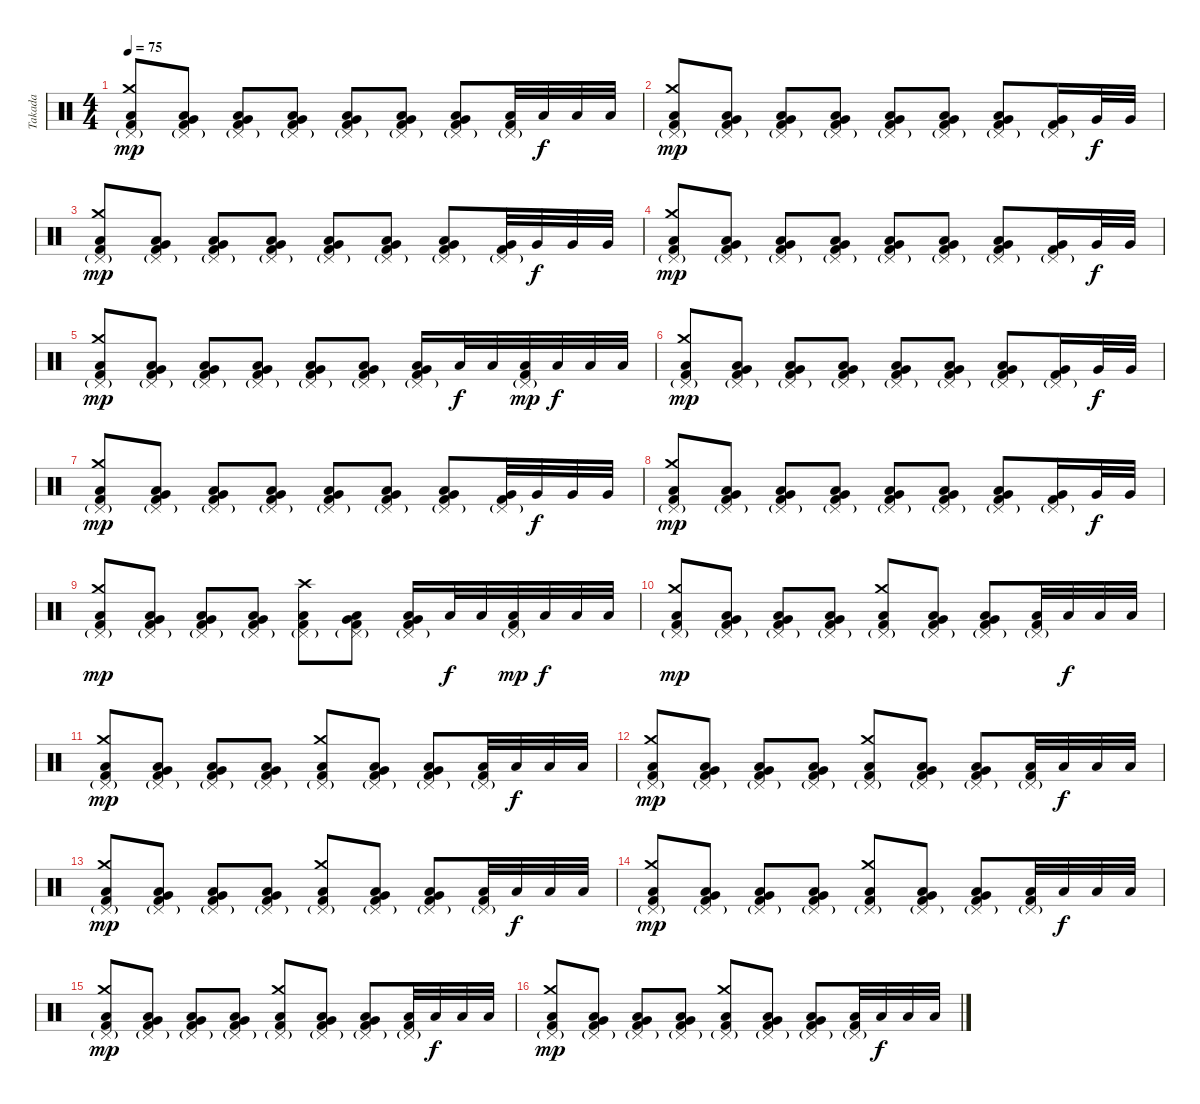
\track ("Takada" "Takada") {instrument percussion}
\staff {score}
\articulation defaults
\ts (4 4)
\tempo 75
\clef neutral
\ks c
("Pedal Hi-Hat (hit)"{g} "Crash medium (hit)" "Low Floor Tom (hit)" "Kick (hit) 2").8{dy mp} ("Pedal Hi-Hat (hit)"{g} "Very Low Tom (hit)" "Low Floor Tom (hit)" "Kick (hit) 2").8 ("Pedal Hi-Hat (hit)"{g} "Very Low Tom (hit)" "Low Floor Tom (hit)" "Kick (hit) 2").8 ("Pedal Hi-Hat (hit)"{g} "Very Low Tom (hit)" "Low Floor Tom (hit)" "Kick (hit) 2").8 ("Pedal Hi-Hat (hit)"{g} "Very Low Tom (hit)" "Low Floor Tom (hit)" "Kick (hit) 2").8 ("Pedal Hi-Hat (hit)"{g} "Very Low Tom (hit)" "Low Floor Tom (hit)" "Kick (hit) 2").8 ("Pedal Hi-Hat (hit)"{g} "Very Low Tom (hit)" "Low Floor Tom (hit)" "Kick (hit) 2").8 ("Pedal Hi-Hat (hit)"{g} "Low Floor Tom (hit)" "Kick (hit) 2").32 "Low Floor Tom (hit)".32{dy f} "Low Floor Tom (hit)".32 "Low Floor Tom (hit)".32 |
("Pedal Hi-Hat (hit)"{g} "Crash medium (hit)" "Low Floor Tom (hit)" "Kick (hit) 2").8{dy mp} ("Pedal Hi-Hat (hit)"{g} "Very Low Tom (hit)" "Low Floor Tom (hit)" "Kick (hit) 2").8 ("Pedal Hi-Hat (hit)"{g} "Very Low Tom (hit)" "Low Floor Tom (hit)" "Kick (hit) 2").8 ("Pedal Hi-Hat (hit)"{g} "Very Low Tom (hit)" "Low Floor Tom (hit)" "Kick (hit) 2").8 ("Pedal Hi-Hat (hit)"{g} "Very Low Tom (hit)" "Low Floor Tom (hit)" "Kick (hit) 2").8 ("Pedal Hi-Hat (hit)"{g} "Very Low Tom (hit)" "Low Floor Tom (hit)" "Kick (hit) 2").8 ("Pedal Hi-Hat (hit)"{g} "Very Low Tom (hit)" "Low Floor Tom (hit)" "Kick (hit) 2").8 ("Pedal Hi-Hat (hit)"{g} "Very Low Tom (hit)" "Kick (hit) 2").16 "Very Low Tom (hit)".32{dy f} "Very Low Tom (hit)".32 |
("Pedal Hi-Hat (hit)"{g} "Crash medium (hit)" "Low Floor Tom (hit)" "Kick (hit) 2").8{dy mp} ("Pedal Hi-Hat (hit)"{g} "Very Low Tom (hit)" "Low Floor Tom (hit)" "Kick (hit) 2").8 ("Pedal Hi-Hat (hit)"{g} "Very Low Tom (hit)" "Low Floor Tom (hit)" "Kick (hit) 2").8 ("Pedal Hi-Hat (hit)"{g} "Very Low Tom (hit)" "Low Floor Tom (hit)" "Kick (hit) 2").8 ("Pedal Hi-Hat (hit)"{g} "Very Low Tom (hit)" "Low Floor Tom (hit)" "Kick (hit) 2").8 ("Pedal Hi-Hat (hit)"{g} "Very Low Tom (hit)" "Low Floor Tom (hit)" "Kick (hit) 2").8 ("Pedal Hi-Hat (hit)"{g} "Very Low Tom (hit)" "Low Floor Tom (hit)" "Kick (hit) 2").8 ("Pedal Hi-Hat (hit)"{g} "Very Low Tom (hit)" "Kick (hit) 2").32 "Very Low Tom (hit)".32{dy f} "Very Low Tom (hit)".32 "Very Low Tom (hit)".32 |
("Pedal Hi-Hat (hit)"{g} "Crash medium (hit)" "Low Floor Tom (hit)" "Kick (hit) 2").8{dy mp} ("Pedal Hi-Hat (hit)"{g} "Very Low Tom (hit)" "Low Floor Tom (hit)" "Kick (hit) 2").8 ("Pedal Hi-Hat (hit)"{g} "Very Low Tom (hit)" "Low Floor Tom (hit)" "Kick (hit) 2").8 ("Pedal Hi-Hat (hit)"{g} "Very Low Tom (hit)" "Low Floor Tom (hit)" "Kick (hit) 2").8 ("Pedal Hi-Hat (hit)"{g} "Very Low Tom (hit)" "Low Floor Tom (hit)" "Kick (hit) 2").8 ("Pedal Hi-Hat (hit)"{g} "Very Low Tom (hit)" "Low Floor Tom (hit)" "Kick (hit) 2").8 ("Pedal Hi-Hat (hit)"{g} "Very Low Tom (hit)" "Low Floor Tom (hit)" "Kick (hit) 2").8 ("Pedal Hi-Hat (hit)"{g} "Very Low Tom (hit)" "Kick (hit) 2").16 "Very Low Tom (hit)".32{dy f} "Very Low Tom (hit)".32 |
("Pedal Hi-Hat (hit)"{g} "Crash medium (hit)" "Low Floor Tom (hit)" "Kick (hit) 2").8{dy mp} ("Pedal Hi-Hat (hit)"{g} "Very Low Tom (hit)" "Low Floor Tom (hit)" "Kick (hit) 2").8 ("Pedal Hi-Hat (hit)"{g} "Very Low Tom (hit)" "Low Floor Tom (hit)" "Kick (hit) 2").8 ("Pedal Hi-Hat (hit)"{g} "Very Low Tom (hit)" "Low Floor Tom (hit)" "Kick (hit) 2").8 ("Pedal Hi-Hat (hit)"{g} "Very Low Tom (hit)" "Low Floor Tom (hit)" "Kick (hit) 2").8 ("Pedal Hi-Hat (hit)"{g} "Very Low Tom (hit)" "Low Floor Tom (hit)" "Kick (hit) 2").8 ("Pedal Hi-Hat (hit)"{g} "Very Low Tom (hit)" "Low Floor Tom (hit)" "Kick (hit) 2").16 "Low Floor Tom (hit)".32{dy f} "Low Floor Tom (hit)".32 ("Pedal Hi-Hat (hit)"{g} "Low Floor Tom (hit)" "Kick (hit) 2").32{dy mp} "Low Floor Tom (hit)".32{dy f} "Low Floor Tom (hit)".32 "Low Floor Tom (hit)".32 |
("Pedal Hi-Hat (hit)"{g} "Crash medium (hit)" "Low Floor Tom (hit)" "Kick (hit) 2").8{dy mp} ("Pedal Hi-Hat (hit)"{g} "Very Low Tom (hit)" "Low Floor Tom (hit)" "Kick (hit) 2").8 ("Pedal Hi-Hat (hit)"{g} "Very Low Tom (hit)" "Low Floor Tom (hit)" "Kick (hit) 2").8 ("Pedal Hi-Hat (hit)"{g} "Very Low Tom (hit)" "Low Floor Tom (hit)" "Kick (hit) 2").8 ("Pedal Hi-Hat (hit)"{g} "Very Low Tom (hit)" "Low Floor Tom (hit)" "Kick (hit) 2").8 ("Pedal Hi-Hat (hit)"{g} "Very Low Tom (hit)" "Low Floor Tom (hit)" "Kick (hit) 2").8 ("Pedal Hi-Hat (hit)"{g} "Very Low Tom (hit)" "Low Floor Tom (hit)" "Kick (hit) 2").8 ("Pedal Hi-Hat (hit)"{g} "Very Low Tom (hit)" "Kick (hit) 2").16 "Very Low Tom (hit)".32{dy f} "Very Low Tom (hit)".32 |
("Pedal Hi-Hat (hit)"{g} "Crash medium (hit)" "Low Floor Tom (hit)" "Kick (hit) 2").8{dy mp} ("Pedal Hi-Hat (hit)"{g} "Very Low Tom (hit)" "Low Floor Tom (hit)" "Kick (hit) 2").8 ("Pedal Hi-Hat (hit)"{g} "Very Low Tom (hit)" "Low Floor Tom (hit)" "Kick (hit) 2").8 ("Pedal Hi-Hat (hit)"{g} "Very Low Tom (hit)" "Low Floor Tom (hit)" "Kick (hit) 2").8 ("Pedal Hi-Hat (hit)"{g} "Very Low Tom (hit)" "Low Floor Tom (hit)" "Kick (hit) 2").8 ("Pedal Hi-Hat (hit)"{g} "Very Low Tom (hit)" "Low Floor Tom (hit)" "Kick (hit) 2").8 ("Pedal Hi-Hat (hit)"{g} "Very Low Tom (hit)" "Low Floor Tom (hit)" "Kick (hit) 2").8 ("Pedal Hi-Hat (hit)"{g} "Very Low Tom (hit)" "Kick (hit) 2").32 "Very Low Tom (hit)".32{dy f} "Very Low Tom (hit)".32 "Very Low Tom (hit)".32 |
("Pedal Hi-Hat (hit)"{g} "Crash medium (hit)" "Low Floor Tom (hit)" "Kick (hit) 2").8{dy mp} ("Pedal Hi-Hat (hit)"{g} "Very Low Tom (hit)" "Low Floor Tom (hit)" "Kick (hit) 2").8 ("Pedal Hi-Hat (hit)"{g} "Very Low Tom (hit)" "Low Floor Tom (hit)" "Kick (hit) 2").8 ("Pedal Hi-Hat (hit)"{g} "Very Low Tom (hit)" "Low Floor Tom (hit)" "Kick (hit) 2").8 ("Pedal Hi-Hat (hit)"{g} "Very Low Tom (hit)" "Low Floor Tom (hit)" "Kick (hit) 2").8 ("Pedal Hi-Hat (hit)"{g} "Very Low Tom (hit)" "Low Floor Tom (hit)" "Kick (hit) 2").8 ("Pedal Hi-Hat (hit)"{g} "Very Low Tom (hit)" "Low Floor Tom (hit)" "Kick (hit) 2").8 ("Pedal Hi-Hat (hit)"{g} "Very Low Tom (hit)" "Kick (hit) 2").16 "Very Low Tom (hit)".32{dy f} "Very Low Tom (hit)".32 |
("Pedal Hi-Hat (hit)"{g} "Crash medium (hit)" "Low Floor Tom (hit)" "Kick (hit) 2").8{dy mp} ("Pedal Hi-Hat (hit)"{g} "Very Low Tom (hit)" "Low Floor Tom (hit)" "Kick (hit) 2").8 ("Pedal Hi-Hat (hit)"{g} "Very Low Tom (hit)" "Low Floor Tom (hit)" "Kick (hit) 2").8 ("Pedal Hi-Hat (hit)"{g} "Very Low Tom (hit)" "Low Floor Tom (hit)" "Kick (hit) 2").8 ("Pedal Hi-Hat (hit)"{g} "Crash high (hit)" "Low Floor Tom (hit)" "Kick (hit) 2").8 ("Pedal Hi-Hat (hit)"{g} "Very Low Tom (hit)" "Low Floor Tom (hit)" "Kick (hit) 2").8 ("Pedal Hi-Hat (hit)"{g} "Very Low Tom (hit)" "Low Floor Tom (hit)" "Kick (hit) 2").16 "Low Floor Tom (hit)".32{dy f} "Low Floor Tom (hit)".32 ("Pedal Hi-Hat (hit)"{g} "Low Floor Tom (hit)" "Kick (hit) 2").32{dy mp} "Low Floor Tom (hit)".32{dy f} "Low Floor Tom (hit)".32 "Low Floor Tom (hit)".32 |
("Pedal Hi-Hat (hit)"{g} "Crash medium (hit)" "Low Floor Tom (hit)" "Kick (hit) 2").8{dy mp} ("Pedal Hi-Hat (hit)"{g} "Very Low Tom (hit)" "Low Floor Tom (hit)" "Kick (hit) 2").8 ("Pedal Hi-Hat (hit)"{g} "Very Low Tom (hit)" "Low Floor Tom (hit)" "Kick (hit) 2").8 ("Pedal Hi-Hat (hit)"{g} "Very Low Tom (hit)" "Low Floor Tom (hit)" "Kick (hit) 2").8 ("Pedal Hi-Hat (hit)"{g} "Crash medium (hit)" "Low Floor Tom (hit)" "Kick (hit) 2").8 ("Pedal Hi-Hat (hit)"{g} "Very Low Tom (hit)" "Low Floor Tom (hit)" "Kick (hit) 2").8 ("Pedal Hi-Hat (hit)"{g} "Very Low Tom (hit)" "Low Floor Tom (hit)" "Kick (hit) 2").8 ("Pedal Hi-Hat (hit)"{g} "Low Floor Tom (hit)" "Kick (hit) 2").32 "Low Floor Tom (hit)".32{dy f} "Low Floor Tom (hit)".32 "Low Floor Tom (hit)".32 |
("Pedal Hi-Hat (hit)"{g} "Crash medium (hit)" "Low Floor Tom (hit)" "Kick (hit) 2").8{dy mp} ("Pedal Hi-Hat (hit)"{g} "Very Low Tom (hit)" "Low Floor Tom (hit)" "Kick (hit) 2").8 ("Pedal Hi-Hat (hit)"{g} "Very Low Tom (hit)" "Low Floor Tom (hit)" "Kick (hit) 2").8 ("Pedal Hi-Hat (hit)"{g} "Very Low Tom (hit)" "Low Floor Tom (hit)" "Kick (hit) 2").8 ("Pedal Hi-Hat (hit)"{g} "Crash medium (hit)" "Low Floor Tom (hit)" "Kick (hit) 2").8 ("Pedal Hi-Hat (hit)"{g} "Very Low Tom (hit)" "Low Floor Tom (hit)" "Kick (hit) 2").8 ("Pedal Hi-Hat (hit)"{g} "Very Low Tom (hit)" "Low Floor Tom (hit)" "Kick (hit) 2").8 ("Pedal Hi-Hat (hit)"{g} "Low Floor Tom (hit)" "Kick (hit) 2").32 "Low Floor Tom (hit)".32{dy f} "Low Floor Tom (hit)".32 "Low Floor Tom (hit)".32 |
("Pedal Hi-Hat (hit)"{g} "Crash medium (hit)" "Low Floor Tom (hit)" "Kick (hit) 2").8{dy mp} ("Pedal Hi-Hat (hit)"{g} "Very Low Tom (hit)" "Low Floor Tom (hit)" "Kick (hit) 2").8 ("Pedal Hi-Hat (hit)"{g} "Very Low Tom (hit)" "Low Floor Tom (hit)" "Kick (hit) 2").8 ("Pedal Hi-Hat (hit)"{g} "Very Low Tom (hit)" "Low Floor Tom (hit)" "Kick (hit) 2").8 ("Pedal Hi-Hat (hit)"{g} "Crash medium (hit)" "Low Floor Tom (hit)" "Kick (hit) 2").8 ("Pedal Hi-Hat (hit)"{g} "Very Low Tom (hit)" "Low Floor Tom (hit)" "Kick (hit) 2").8 ("Pedal Hi-Hat (hit)"{g} "Very Low Tom (hit)" "Low Floor Tom (hit)" "Kick (hit) 2").8 ("Pedal Hi-Hat (hit)"{g} "Low Floor Tom (hit)" "Kick (hit) 2").32 "Low Floor Tom (hit)".32{dy f} "Low Floor Tom (hit)".32 "Low Floor Tom (hit)".32 |
("Pedal Hi-Hat (hit)"{g} "Crash medium (hit)" "Low Floor Tom (hit)" "Kick (hit) 2").8{dy mp} ("Pedal Hi-Hat (hit)"{g} "Very Low Tom (hit)" "Low Floor Tom (hit)" "Kick (hit) 2").8 ("Pedal Hi-Hat (hit)"{g} "Very Low Tom (hit)" "Low Floor Tom (hit)" "Kick (hit) 2").8 ("Pedal Hi-Hat (hit)"{g} "Very Low Tom (hit)" "Low Floor Tom (hit)" "Kick (hit) 2").8 ("Pedal Hi-Hat (hit)"{g} "Crash medium (hit)" "Low Floor Tom (hit)" "Kick (hit) 2").8 ("Pedal Hi-Hat (hit)"{g} "Very Low Tom (hit)" "Low Floor Tom (hit)" "Kick (hit) 2").8 ("Pedal Hi-Hat (hit)"{g} "Very Low Tom (hit)" "Low Floor Tom (hit)" "Kick (hit) 2").8 ("Pedal Hi-Hat (hit)"{g} "Low Floor Tom (hit)" "Kick (hit) 2").32 "Low Floor Tom (hit)".32{dy f} "Low Floor Tom (hit)".32 "Low Floor Tom (hit)".32 |
("Pedal Hi-Hat (hit)"{g} "Crash medium (hit)" "Low Floor Tom (hit)" "Kick (hit) 2").8{dy mp} ("Pedal Hi-Hat (hit)"{g} "Very Low Tom (hit)" "Low Floor Tom (hit)" "Kick (hit) 2").8 ("Pedal Hi-Hat (hit)"{g} "Very Low Tom (hit)" "Low Floor Tom (hit)" "Kick (hit) 2").8 ("Pedal Hi-Hat (hit)"{g} "Very Low Tom (hit)" "Low Floor Tom (hit)" "Kick (hit) 2").8 ("Pedal Hi-Hat (hit)"{g} "Crash medium (hit)" "Low Floor Tom (hit)" "Kick (hit) 2").8 ("Pedal Hi-Hat (hit)"{g} "Very Low Tom (hit)" "Low Floor Tom (hit)" "Kick (hit) 2").8 ("Pedal Hi-Hat (hit)"{g} "Very Low Tom (hit)" "Low Floor Tom (hit)" "Kick (hit) 2").8 ("Pedal Hi-Hat (hit)"{g} "Low Floor Tom (hit)" "Kick (hit) 2").32 "Low Floor Tom (hit)".32{dy f} "Low Floor Tom (hit)".32 "Low Floor Tom (hit)".32 |
("Pedal Hi-Hat (hit)"{g} "Crash medium (hit)" "Low Floor Tom (hit)" "Kick (hit) 2").8{dy mp} ("Pedal Hi-Hat (hit)"{g} "Very Low Tom (hit)" "Low Floor Tom (hit)" "Kick (hit) 2").8 ("Pedal Hi-Hat (hit)"{g} "Very Low Tom (hit)" "Low Floor Tom (hit)" "Kick (hit) 2").8 ("Pedal Hi-Hat (hit)"{g} "Very Low Tom (hit)" "Low Floor Tom (hit)" "Kick (hit) 2").8 ("Pedal Hi-Hat (hit)"{g} "Crash medium (hit)" "Low Floor Tom (hit)" "Kick (hit) 2").8 ("Pedal Hi-Hat (hit)"{g} "Very Low Tom (hit)" "Low Floor Tom (hit)" "Kick (hit) 2").8 ("Pedal Hi-Hat (hit)"{g} "Very Low Tom (hit)" "Low Floor Tom (hit)" "Kick (hit) 2").8 ("Pedal Hi-Hat (hit)"{g} "Low Floor Tom (hit)" "Kick (hit) 2").32 "Low Floor Tom (hit)".32{dy f} "Low Floor Tom (hit)".32 "Low Floor Tom (hit)".32 |
("Pedal Hi-Hat (hit)"{g} "Crash medium (hit)" "Low Floor Tom (hit)" "Kick (hit) 2").8{dy mp} ("Pedal Hi-Hat (hit)"{g} "Very Low Tom (hit)" "Low Floor Tom (hit)" "Kick (hit) 2").8 ("Pedal Hi-Hat (hit)"{g} "Very Low Tom (hit)" "Low Floor Tom (hit)" "Kick (hit) 2").8 ("Pedal Hi-Hat (hit)"{g} "Very Low Tom (hit)" "Low Floor Tom (hit)" "Kick (hit) 2").8 ("Pedal Hi-Hat (hit)"{g} "Crash medium (hit)" "Low Floor Tom (hit)" "Kick (hit) 2").8 ("Pedal Hi-Hat (hit)"{g} "Very Low Tom (hit)" "Low Floor Tom (hit)" "Kick (hit) 2").8 ("Pedal Hi-Hat (hit)"{g} "Very Low Tom (hit)" "Low Floor Tom (hit)" "Kick (hit) 2").8 ("Pedal Hi-Hat (hit)"{g} "Low Floor Tom (hit)" "Kick (hit) 2").32 "Low Floor Tom (hit)".32{dy f} "Low Floor Tom (hit)".32 "Low Floor Tom (hit)".32
